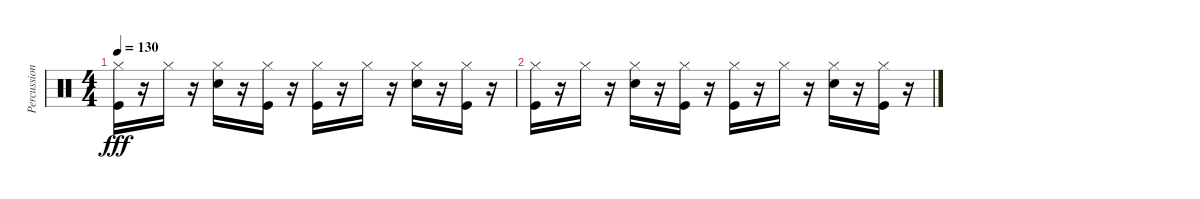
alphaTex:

\track ("Percussion" "Percussion") {instrument percussion}
\staff {score}
\articulation defaults
\ts (4 4)
\tempo 130
\clef neutral
\ks c
("Kick (hit)" "Hi-Hat (closed)").16{dy fff} r.16 "Hi-Hat (closed)".16 r.16 ("Hi-Hat (closed)" "Snare (hit) 2").16 r.16 ("Kick (hit)" "Hi-Hat (closed)").16 r.16 ("Kick (hit)" "Hi-Hat (closed)").16 r.16 "Hi-Hat (closed)".16 r.16 ("Hi-Hat (closed)" "Snare (hit) 2").16 r.16 ("Kick (hit)" "Hi-Hat (closed)").16 r.16 |
("Kick (hit)" "Hi-Hat (closed)").16 r.16 "Hi-Hat (closed)".16 r.16 ("Hi-Hat (closed)" "Snare (hit) 2").16 r.16 ("Kick (hit)" "Hi-Hat (closed)").16 r.16 ("Kick (hit)" "Hi-Hat (closed)").16 r.16 "Hi-Hat (closed)".16 r.16 ("Hi-Hat (closed)" "Snare (hit) 2").16 r.16 ("Kick (hit)" "Hi-Hat (closed)").16 r.16
